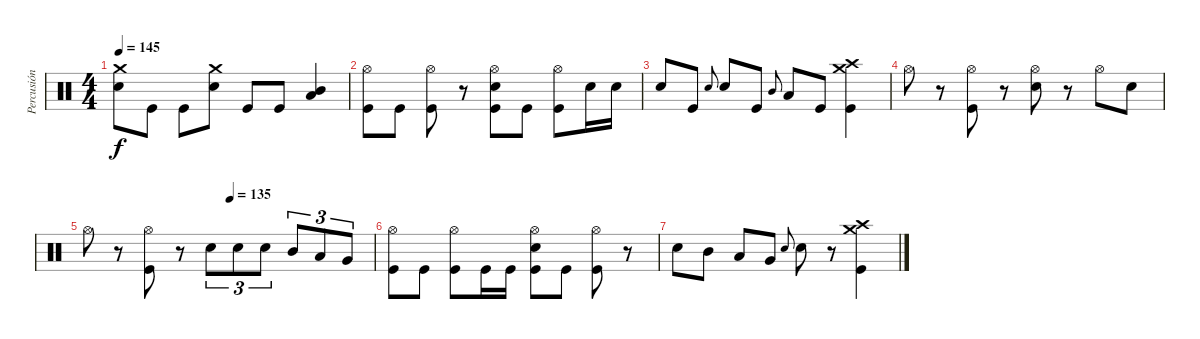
\track ("Percusión" "Percusión") {instrument percussion}
\staff {score}
\articulation defaults
\ts (4 4)
\tempo 145
\clef neutral
\ks c
("Crash medium (hit)" "Snare (hit) 2").8{dy f} "Kick (hit)".8 "Kick (hit)".8 ("Crash medium (hit)" "Snare (hit) 2").8 "Kick (hit)".8 "Kick (hit)".8 ("Mid Tom (hit)" "Low Tom (hit)").4 |
("Hi-Hat (open)" "Kick (hit)").8 "Kick (hit)".8 ("Hi-Hat (open)" "Kick (hit)").8 r.8 ("Hi-Hat (open)" "Snare (hit) 2" "Kick (hit)").8 "Kick (hit)".8 ("Hi-Hat (open)" "Kick (hit)").8 "Snare (hit) 2".16 "Snare (hit) 2".16 |
"Snare (hit) 2".8 "Kick (hit)".8 "Snare (hit) 2".8{gr onbeat} "Snare (hit) 2".8 "Kick (hit)".8 "Mid Tom (hit)".8{gr onbeat} "Low Tom (hit)".8 "Kick (hit)".8 ("Crash medium (hit)" "Crash high (hit)" "Kick (hit)").4 |
"Hi-Hat (open)".8 r.8 ("Hi-Hat (open)" "Kick (hit)").8 r.8 ("Hi-Hat (open)" "Snare (hit) 2").8 r.8 "Hi-Hat (open)".8 "Snare (hit) 2".8 |
\tempo (135 0.5)
"Hi-Hat (open)".8 r.8 ("Hi-Hat (open)" "Kick (hit)").8 r.8 "Snare (hit) 2".8{tu (3 2)} "Snare (hit) 2".8{tu (3 2)} "Snare (hit) 2".8{tu (3 2)} "Mid Tom (hit)".8{tu (3 2)} "Low Tom (hit)".8{tu (3 2)} "Very Low Tom (hit)".8{tu (3 2)} |
("Hi-Hat (open)" "Kick (hit)").8 "Kick (hit)".8 ("Hi-Hat (open)" "Kick (hit)").8 "Kick (hit)".16 "Kick (hit)".16 ("Hi-Hat (open)" "Snare (hit) 2" "Kick (hit)").8 "Kick (hit)".8 ("Hi-Hat (open)" "Kick (hit)").8 r.8 |
"Snare (hit) 2".8 "Mid Tom (hit)".8 "Low Tom (hit)".8 "Very Low Tom (hit)".8 "Snare (hit) 2".8{gr onbeat} "Snare (hit) 2".8 r.8 ("Crash medium (hit)" "Crash high (hit)" "Kick (hit)").4
